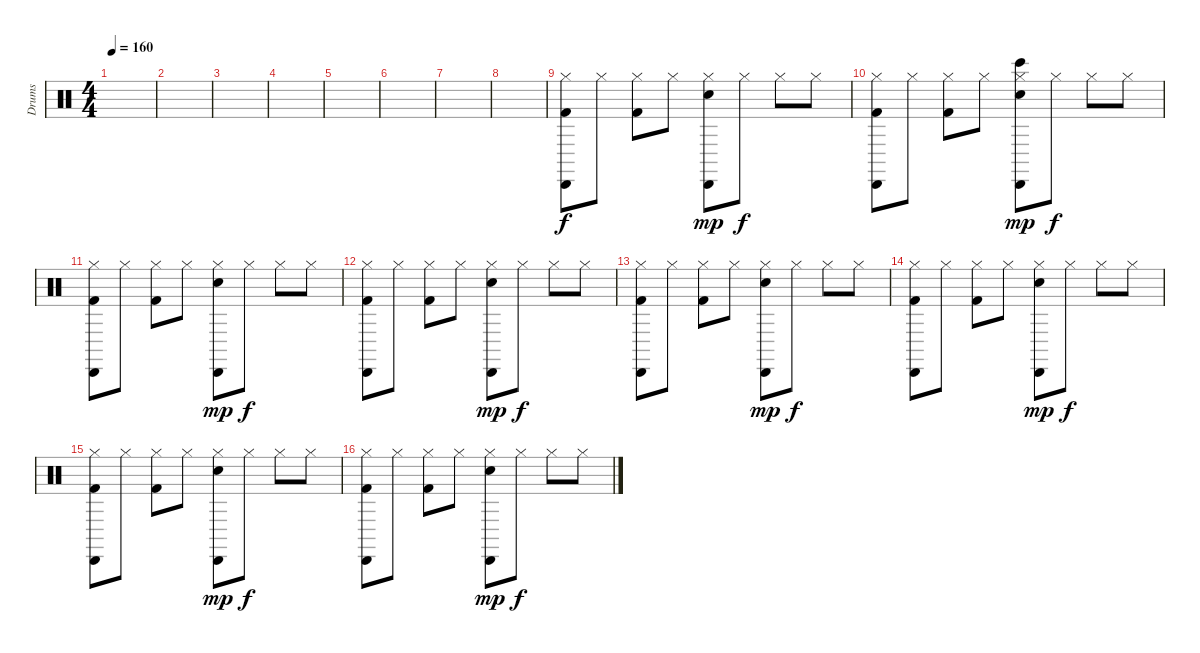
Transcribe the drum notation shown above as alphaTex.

\track ("Drums" "Drums") {instrument percussion}
\staff {score}
\articulation defaults
\ts (4 4)
\tempo 160
\clef neutral
\ks c
|
|
|
|
|
|
|
|
("Hi-Hat (closed)" "Cabasa (hit)" "Kick (hit) 2").8 "Hi-Hat (closed)".8 ("Hi-Hat (closed)" "Kick (hit) 2").8 "Hi-Hat (closed)".8 ("Hi-Hat (closed)" "Cabasa (hit)" "Electric Snare (hit)").8{dy mp} "Hi-Hat (closed)".8{dy f} "Hi-Hat (closed)".8 "Hi-Hat (closed)".8 |
("Hi-Hat (closed)" "Cabasa (hit)" "Kick (hit) 2").8 "Hi-Hat (closed)".8 ("Hi-Hat (closed)" "Kick (hit) 2").8 "Hi-Hat (closed)".8 ("Hi-Hat (closed)" "Cabasa (hit)" "Electric Snare (hit)" "Bongo High (hit)").8{dy mp} "Hi-Hat (closed)".8{dy f} "Hi-Hat (closed)".8 "Hi-Hat (closed)".8 |
("Hi-Hat (closed)" "Cabasa (hit)" "Kick (hit) 2").8 "Hi-Hat (closed)".8 ("Hi-Hat (closed)" "Kick (hit) 2").8 "Hi-Hat (closed)".8 ("Hi-Hat (closed)" "Cabasa (hit)" "Electric Snare (hit)").8{dy mp} "Hi-Hat (closed)".8{dy f} "Hi-Hat (closed)".8 "Hi-Hat (closed)".8 |
("Hi-Hat (closed)" "Cabasa (hit)" "Kick (hit) 2").8 "Hi-Hat (closed)".8 ("Hi-Hat (closed)" "Kick (hit) 2").8 "Hi-Hat (closed)".8 ("Hi-Hat (closed)" "Cabasa (hit)" "Electric Snare (hit)").8{dy mp} "Hi-Hat (closed)".8{dy f} "Hi-Hat (closed)".8 "Hi-Hat (closed)".8 |
("Hi-Hat (closed)" "Cabasa (hit)" "Kick (hit) 2").8 "Hi-Hat (closed)".8 ("Hi-Hat (closed)" "Kick (hit) 2").8 "Hi-Hat (closed)".8 ("Hi-Hat (closed)" "Cabasa (hit)" "Electric Snare (hit)").8{dy mp} "Hi-Hat (closed)".8{dy f} "Hi-Hat (closed)".8 "Hi-Hat (closed)".8 |
("Hi-Hat (closed)" "Cabasa (hit)" "Kick (hit) 2").8 "Hi-Hat (closed)".8 ("Hi-Hat (closed)" "Kick (hit) 2").8 "Hi-Hat (closed)".8 ("Hi-Hat (closed)" "Cabasa (hit)" "Electric Snare (hit)").8{dy mp} "Hi-Hat (closed)".8{dy f} "Hi-Hat (closed)".8 "Hi-Hat (closed)".8 |
("Hi-Hat (closed)" "Cabasa (hit)" "Kick (hit) 2").8 "Hi-Hat (closed)".8 ("Hi-Hat (closed)" "Kick (hit) 2").8 "Hi-Hat (closed)".8 ("Hi-Hat (closed)" "Cabasa (hit)" "Electric Snare (hit)").8{dy mp} "Hi-Hat (closed)".8{dy f} "Hi-Hat (closed)".8 "Hi-Hat (closed)".8 |
("Hi-Hat (closed)" "Cabasa (hit)" "Kick (hit) 2").8 "Hi-Hat (closed)".8 ("Hi-Hat (closed)" "Kick (hit) 2").8 "Hi-Hat (closed)".8 ("Hi-Hat (closed)" "Cabasa (hit)" "Electric Snare (hit)").8{dy mp} "Hi-Hat (closed)".8{dy f} "Hi-Hat (closed)".8 "Hi-Hat (closed)".8
